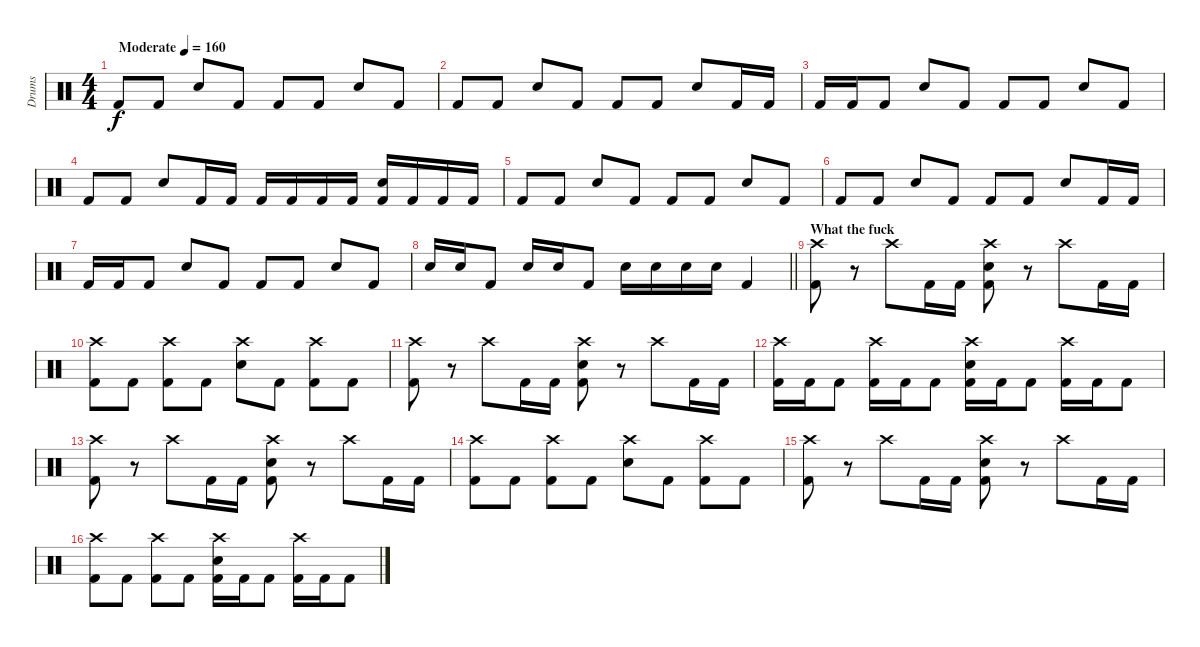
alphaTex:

\track ("Drums" "Drums") {instrument percussion}
\staff {score}
\articulation defaults
\ts (4 4)
\tempo (160 "Moderate")
\clef neutral
\ks c "Kick (hit) 2".8{dy f} "Kick (hit) 2".8 "Electric Snare (hit)".8 "Kick (hit) 2".8 "Kick (hit) 2".8 "Kick (hit) 2".8 "Electric Snare (hit)".8 "Kick (hit) 2".8
|
"Kick (hit) 2".8 "Kick (hit) 2".8 "Electric Snare (hit)".8 "Kick (hit) 2".8 "Kick (hit) 2".8 "Kick (hit) 2".8 "Electric Snare (hit)".8 "Kick (hit) 2".16 "Kick (hit) 2".16 |
"Kick (hit) 2".16 "Kick (hit) 2".16 "Kick (hit) 2".8 "Electric Snare (hit)".8 "Kick (hit) 2".8 "Kick (hit) 2".8 "Kick (hit) 2".8 "Electric Snare (hit)".8 "Kick (hit) 2".8 |
"Kick (hit) 2".8 "Kick (hit) 2".8 "Electric Snare (hit)".8 "Kick (hit) 2".16 "Kick (hit) 2".16 "Kick (hit) 2".16 "Kick (hit) 2".16 "Kick (hit) 2".16 "Kick (hit) 2".16 ("Electric Snare (hit)" "Kick (hit) 2").16 "Kick (hit) 2".16 "Kick (hit) 2".16 "Kick (hit) 2".16 |
"Kick (hit) 2".8 "Kick (hit) 2".8 "Electric Snare (hit)".8 "Kick (hit) 2".8 "Kick (hit) 2".8 "Kick (hit) 2".8 "Electric Snare (hit)".8 "Kick (hit) 2".8 |
"Kick (hit) 2".8 "Kick (hit) 2".8 "Electric Snare (hit)".8 "Kick (hit) 2".8 "Kick (hit) 2".8 "Kick (hit) 2".8 "Electric Snare (hit)".8 "Kick (hit) 2".16 "Kick (hit) 2".16 |
"Kick (hit) 2".16 "Kick (hit) 2".16 "Kick (hit) 2".8 "Electric Snare (hit)".8 "Kick (hit) 2".8 "Kick (hit) 2".8 "Kick (hit) 2".8 "Electric Snare (hit)".8 "Kick (hit) 2".8 |
\barLineRight lightlight "Electric Snare (hit)".16 "Electric Snare (hit)".16 "Kick (hit) 2".8 "Electric Snare (hit)".16 "Electric Snare (hit)".16 "Kick (hit) 2".8 "Electric Snare (hit)".16 "Electric Snare (hit)".16 "Electric Snare (hit)".16 "Electric Snare (hit)".16 "Kick (hit) 2".4
|
\section ("" "What the fuck")
("Crash high (hit)" "Kick (hit) 2").8 r.8 "Crash high (hit)".8 "Kick (hit) 2".16 "Kick (hit) 2".16 ("Crash high (hit)" "Electric Snare (hit)" "Kick (hit) 2").8 r.8 "Crash high (hit)".8 "Kick (hit) 2".16 "Kick (hit) 2".16 |
("Crash high (hit)" "Kick (hit) 2").8 "Kick (hit) 2".8 ("Crash high (hit)" "Kick (hit) 2").8 "Kick (hit) 2".8 ("Crash high (hit)" "Electric Snare (hit)").8 "Kick (hit) 2".8 ("Crash high (hit)" "Kick (hit) 2").8 "Kick (hit) 2".8 |
("Crash high (hit)" "Kick (hit) 2").8 r.8 "Crash high (hit)".8 "Kick (hit) 2".16 "Kick (hit) 2".16 ("Crash high (hit)" "Electric Snare (hit)" "Kick (hit) 2").8 r.8 "Crash high (hit)".8 "Kick (hit) 2".16 "Kick (hit) 2".16 |
("Crash high (hit)" "Kick (hit) 2").16 "Kick (hit) 2".16 "Kick (hit) 2".8 ("Crash high (hit)" "Kick (hit) 2").16 "Kick (hit) 2".16 "Kick (hit) 2".8 ("Crash high (hit)" "Electric Snare (hit)" "Kick (hit) 2").16 "Kick (hit) 2".16 "Kick (hit) 2".8 ("Crash high (hit)" "Kick (hit) 2").16 "Kick (hit) 2".16 "Kick (hit) 2".8 |
("Crash high (hit)" "Kick (hit) 2").8 r.8 "Crash high (hit)".8 "Kick (hit) 2".16 "Kick (hit) 2".16 ("Crash high (hit)" "Electric Snare (hit)" "Kick (hit) 2").8 r.8 "Crash high (hit)".8 "Kick (hit) 2".16 "Kick (hit) 2".16 |
("Crash high (hit)" "Kick (hit) 2").8 "Kick (hit) 2".8 ("Crash high (hit)" "Kick (hit) 2").8 "Kick (hit) 2".8 ("Crash high (hit)" "Electric Snare (hit)").8 "Kick (hit) 2".8 ("Crash high (hit)" "Kick (hit) 2").8 "Kick (hit) 2".8 |
("Crash high (hit)" "Kick (hit) 2").8 r.8 "Crash high (hit)".8 "Kick (hit) 2".16 "Kick (hit) 2".16 ("Crash high (hit)" "Electric Snare (hit)" "Kick (hit) 2").8 r.8 "Crash high (hit)".8 "Kick (hit) 2".16 "Kick (hit) 2".16 |
("Crash high (hit)" "Kick (hit) 2").8 "Kick (hit) 2".8 ("Crash high (hit)" "Kick (hit) 2").8 "Kick (hit) 2".8 ("Crash high (hit)" "Electric Snare (hit)" "Kick (hit) 2").16 "Kick (hit) 2".16 "Kick (hit) 2".8 ("Crash high (hit)" "Kick (hit) 2").16 "Kick (hit) 2".16 "Kick (hit) 2".8
